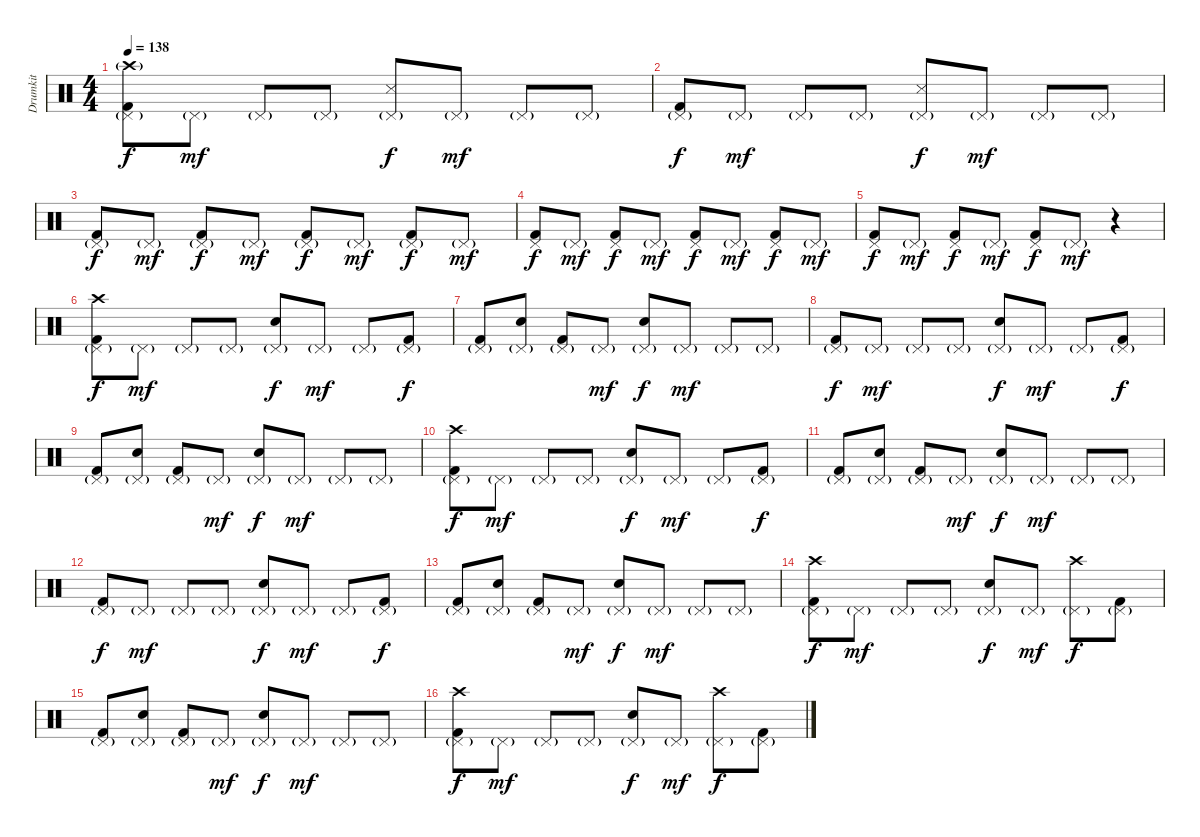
\track ("Drumkit" "Drumkit") {instrument percussion}
\staff {score}
\articulation defaults
\ts (4 4)
\tempo 138
\clef neutral
\ks c
("Crash high (hit)"{g} "Kick (hit) 2" "Pedal Hi-Hat (hit)"{g}).8{dy f} "Pedal Hi-Hat (hit)"{g}.8{dy mf} "Pedal Hi-Hat (hit)"{g}.8 "Pedal Hi-Hat (hit)"{g}.8 ("Snare (side stick) 3" "Pedal Hi-Hat (hit)"{g}).8{dy f} "Pedal Hi-Hat (hit)"{g}.8{dy mf} "Pedal Hi-Hat (hit)"{g}.8 "Pedal Hi-Hat (hit)"{g}.8 |
("Kick (hit) 2" "Pedal Hi-Hat (hit)"{g}).8{dy f} "Pedal Hi-Hat (hit)"{g}.8{dy mf} "Pedal Hi-Hat (hit)"{g}.8 "Pedal Hi-Hat (hit)"{g}.8 ("Snare (side stick) 3" "Pedal Hi-Hat (hit)"{g}).8{dy f} "Pedal Hi-Hat (hit)"{g}.8{dy mf} "Pedal Hi-Hat (hit)"{g}.8 "Pedal Hi-Hat (hit)"{g}.8 |
("Pedal Hi-Hat (hit)"{g} "Kick (hit) 2").8{dy f} "Pedal Hi-Hat (hit)"{g}.8{dy mf} ("Pedal Hi-Hat (hit)"{g} "Kick (hit) 2").8{dy f} "Pedal Hi-Hat (hit)"{g}.8{dy mf} ("Pedal Hi-Hat (hit)"{g} "Kick (hit) 2").8{dy f} "Pedal Hi-Hat (hit)"{g}.8{dy mf} ("Pedal Hi-Hat (hit)"{g} "Kick (hit) 2").8{dy f} "Pedal Hi-Hat (hit)"{g}.8{dy mf} |
("Pedal Hi-Hat (hit)" "Kick (hit) 2").8{dy f} "Pedal Hi-Hat (hit)"{g}.8{dy mf} ("Pedal Hi-Hat (hit)" "Kick (hit) 2").8{dy f} "Pedal Hi-Hat (hit)"{g}.8{dy mf} ("Pedal Hi-Hat (hit)" "Kick (hit) 2").8{dy f} "Pedal Hi-Hat (hit)"{g}.8{dy mf} ("Pedal Hi-Hat (hit)" "Kick (hit) 2").8{dy f} "Pedal Hi-Hat (hit)"{g}.8{dy mf} |
("Pedal Hi-Hat (hit)" "Kick (hit) 2").8{dy f} "Pedal Hi-Hat (hit)"{g}.8{dy mf} ("Pedal Hi-Hat (hit)" "Kick (hit) 2").8{dy f} "Pedal Hi-Hat (hit)"{g}.8{dy mf} ("Pedal Hi-Hat (hit)" "Kick (hit) 2").8{dy f} "Pedal Hi-Hat (hit)"{g}.8{dy mf} r.4 |
("Crash high (hit)" "Pedal Hi-Hat (hit)"{g} "Kick (hit) 2").8{dy f} "Pedal Hi-Hat (hit)"{g}.8{dy mf} "Pedal Hi-Hat (hit)"{g}.8 "Pedal Hi-Hat (hit)"{g}.8 ("Snare (hit) 2" "Pedal Hi-Hat (hit)"{g}).8{dy f} "Pedal Hi-Hat (hit)"{g}.8{dy mf} "Pedal Hi-Hat (hit)"{g}.8 ("Pedal Hi-Hat (hit)"{g} "Kick (hit) 2").8{dy f} |
("Pedal Hi-Hat (hit)"{g} "Kick (hit) 2").8 ("Snare (hit) 2" "Pedal Hi-Hat (hit)"{g}).8 ("Pedal Hi-Hat (hit)"{g} "Kick (hit) 2").8 "Pedal Hi-Hat (hit)"{g}.8{dy mf} ("Snare (hit) 2" "Pedal Hi-Hat (hit)"{g}).8{dy f} "Pedal Hi-Hat (hit)"{g}.8{dy mf} "Pedal Hi-Hat (hit)"{g}.8 "Pedal Hi-Hat (hit)"{g}.8 |
("Pedal Hi-Hat (hit)"{g} "Kick (hit) 2").8{dy f} "Pedal Hi-Hat (hit)"{g}.8{dy mf} "Pedal Hi-Hat (hit)"{g}.8 "Pedal Hi-Hat (hit)"{g}.8 ("Snare (hit) 2" "Pedal Hi-Hat (hit)"{g}).8{dy f} "Pedal Hi-Hat (hit)"{g}.8{dy mf} "Pedal Hi-Hat (hit)"{g}.8 ("Pedal Hi-Hat (hit)"{g} "Kick (hit) 2").8{dy f} |
("Pedal Hi-Hat (hit)"{g} "Kick (hit) 2").8 ("Snare (hit) 2" "Pedal Hi-Hat (hit)"{g}).8 ("Pedal Hi-Hat (hit)"{g} "Kick (hit) 2").8 "Pedal Hi-Hat (hit)"{g}.8{dy mf} ("Snare (hit) 2" "Pedal Hi-Hat (hit)"{g}).8{dy f} "Pedal Hi-Hat (hit)"{g}.8{dy mf} "Pedal Hi-Hat (hit)"{g}.8 "Pedal Hi-Hat (hit)"{g}.8 |
("Crash high (hit)" "Pedal Hi-Hat (hit)"{g} "Kick (hit) 2").8{dy f} "Pedal Hi-Hat (hit)"{g}.8{dy mf} "Pedal Hi-Hat (hit)"{g}.8 "Pedal Hi-Hat (hit)"{g}.8 ("Snare (hit) 2" "Pedal Hi-Hat (hit)"{g}).8{dy f} "Pedal Hi-Hat (hit)"{g}.8{dy mf} "Pedal Hi-Hat (hit)"{g}.8 ("Pedal Hi-Hat (hit)"{g} "Kick (hit) 2").8{dy f} |
("Pedal Hi-Hat (hit)"{g} "Kick (hit) 2").8 ("Snare (hit) 2" "Pedal Hi-Hat (hit)"{g}).8 ("Pedal Hi-Hat (hit)"{g} "Kick (hit) 2").8 "Pedal Hi-Hat (hit)"{g}.8{dy mf} ("Snare (hit) 2" "Pedal Hi-Hat (hit)"{g}).8{dy f} "Pedal Hi-Hat (hit)"{g}.8{dy mf} "Pedal Hi-Hat (hit)"{g}.8 "Pedal Hi-Hat (hit)"{g}.8 |
("Pedal Hi-Hat (hit)"{g} "Kick (hit) 2").8{dy f} "Pedal Hi-Hat (hit)"{g}.8{dy mf} "Pedal Hi-Hat (hit)"{g}.8 "Pedal Hi-Hat (hit)"{g}.8 ("Snare (hit) 2" "Pedal Hi-Hat (hit)"{g}).8{dy f} "Pedal Hi-Hat (hit)"{g}.8{dy mf} "Pedal Hi-Hat (hit)"{g}.8 ("Pedal Hi-Hat (hit)"{g} "Kick (hit) 2").8{dy f} |
("Pedal Hi-Hat (hit)"{g} "Kick (hit) 2").8 ("Snare (hit) 2" "Pedal Hi-Hat (hit)"{g}).8 ("Pedal Hi-Hat (hit)"{g} "Kick (hit) 2").8 "Pedal Hi-Hat (hit)"{g}.8{dy mf} ("Snare (hit) 2" "Pedal Hi-Hat (hit)"{g}).8{dy f} "Pedal Hi-Hat (hit)"{g}.8{dy mf} "Pedal Hi-Hat (hit)"{g}.8 "Pedal Hi-Hat (hit)"{g}.8 |
("Crash high (hit)" "Pedal Hi-Hat (hit)"{g} "Kick (hit) 2").8{dy f} "Pedal Hi-Hat (hit)"{g}.8{dy mf} "Pedal Hi-Hat (hit)"{g}.8 "Pedal Hi-Hat (hit)"{g}.8 ("Snare (hit) 2" "Pedal Hi-Hat (hit)"{g}).8{dy f} "Pedal Hi-Hat (hit)"{g}.8{dy mf} ("Crash high (hit)" "Pedal Hi-Hat (hit)"{g}).8{dy f} ("Pedal Hi-Hat (hit)"{g} "Kick (hit) 2").8 |
("Pedal Hi-Hat (hit)"{g} "Kick (hit) 2").8 ("Snare (hit) 2" "Pedal Hi-Hat (hit)"{g}).8 ("Pedal Hi-Hat (hit)"{g} "Kick (hit) 2").8 "Pedal Hi-Hat (hit)"{g}.8{dy mf} ("Snare (hit) 2" "Pedal Hi-Hat (hit)"{g}).8{dy f} "Pedal Hi-Hat (hit)"{g}.8{dy mf} "Pedal Hi-Hat (hit)"{g}.8 "Pedal Hi-Hat (hit)"{g}.8 |
("Crash high (hit)" "Pedal Hi-Hat (hit)"{g} "Kick (hit) 2").8{dy f} "Pedal Hi-Hat (hit)"{g}.8{dy mf} "Pedal Hi-Hat (hit)"{g}.8 "Pedal Hi-Hat (hit)"{g}.8 ("Snare (hit) 2" "Pedal Hi-Hat (hit)"{g}).8{dy f} "Pedal Hi-Hat (hit)"{g}.8{dy mf} ("Crash high (hit)" "Pedal Hi-Hat (hit)"{g}).8{dy f} ("Pedal Hi-Hat (hit)"{g} "Kick (hit) 2").8
